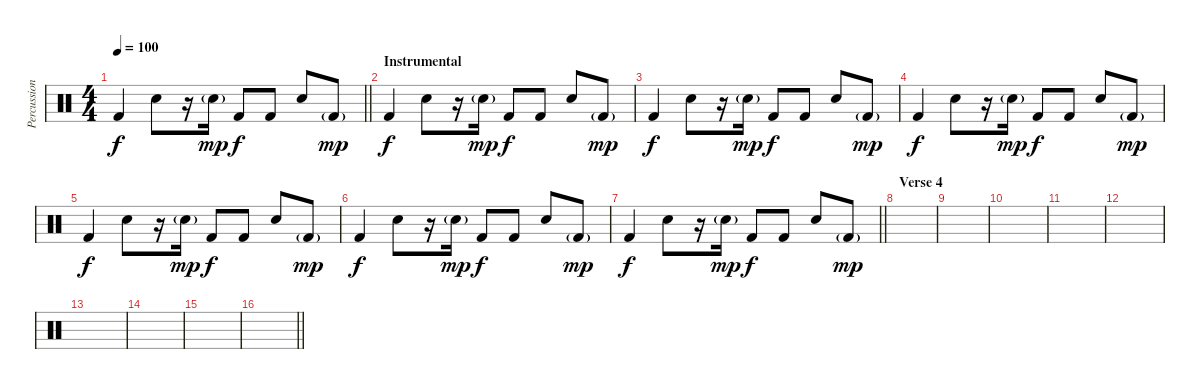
\track ("Percussion" "Percussion") {instrument percussion}
\staff {score}
\articulation defaults
\ts (4 4)
\tempo 100
\clef neutral
\barLineRight lightlight
\ks c "Kick (hit) 2".4{dy f} "Snare (hit) 2".8
r.16 "Snare (hit) 2"{g}.16{dy mp} "Kick (hit) 2".8{dy f} "Kick (hit) 2".8 "Snare (hit) 2".8 "Kick (hit) 2"{g}.8{dy mp} |
\section ("" "Instrumental")
"Kick (hit) 2".4{dy f} "Snare (hit) 2".8 r.16 "Snare (hit) 2"{g}.16{dy mp} "Kick (hit) 2".8{dy f} "Kick (hit) 2".8 "Snare (hit) 2".8 "Kick (hit) 2"{g}.8{dy mp} |
"Kick (hit) 2".4{dy f} "Snare (hit) 2".8 r.16 "Snare (hit) 2"{g}.16{dy mp} "Kick (hit) 2".8{dy f} "Kick (hit) 2".8 "Snare (hit) 2".8 "Kick (hit) 2"{g}.8{dy mp} |
"Kick (hit) 2".4{dy f} "Snare (hit) 2".8 r.16 "Snare (hit) 2"{g}.16{dy mp} "Kick (hit) 2".8{dy f} "Kick (hit) 2".8 "Snare (hit) 2".8 "Kick (hit) 2"{g}.8{dy mp} |
"Kick (hit) 2".4{dy f} "Snare (hit) 2".8 r.16 "Snare (hit) 2"{g}.16{dy mp} "Kick (hit) 2".8{dy f} "Kick (hit) 2".8 "Snare (hit) 2".8 "Kick (hit) 2"{g}.8{dy mp} |
"Kick (hit) 2".4{dy f} "Snare (hit) 2".8 r.16 "Snare (hit) 2"{g}.16{dy mp} "Kick (hit) 2".8{dy f} "Kick (hit) 2".8 "Snare (hit) 2".8 "Kick (hit) 2"{g}.8{dy mp} |
\barLineRight lightlight "Kick (hit) 2".4{dy f} "Snare (hit) 2".8
r.16 "Snare (hit) 2"{g}.16{dy mp} "Kick (hit) 2".8{dy f} "Kick (hit) 2".8 "Snare (hit) 2".8 "Kick (hit) 2"{g}.8{dy mp} |
\section ("" "Verse 4")
|
|
|
|
|
|
|
|
\barLineRight lightlight
